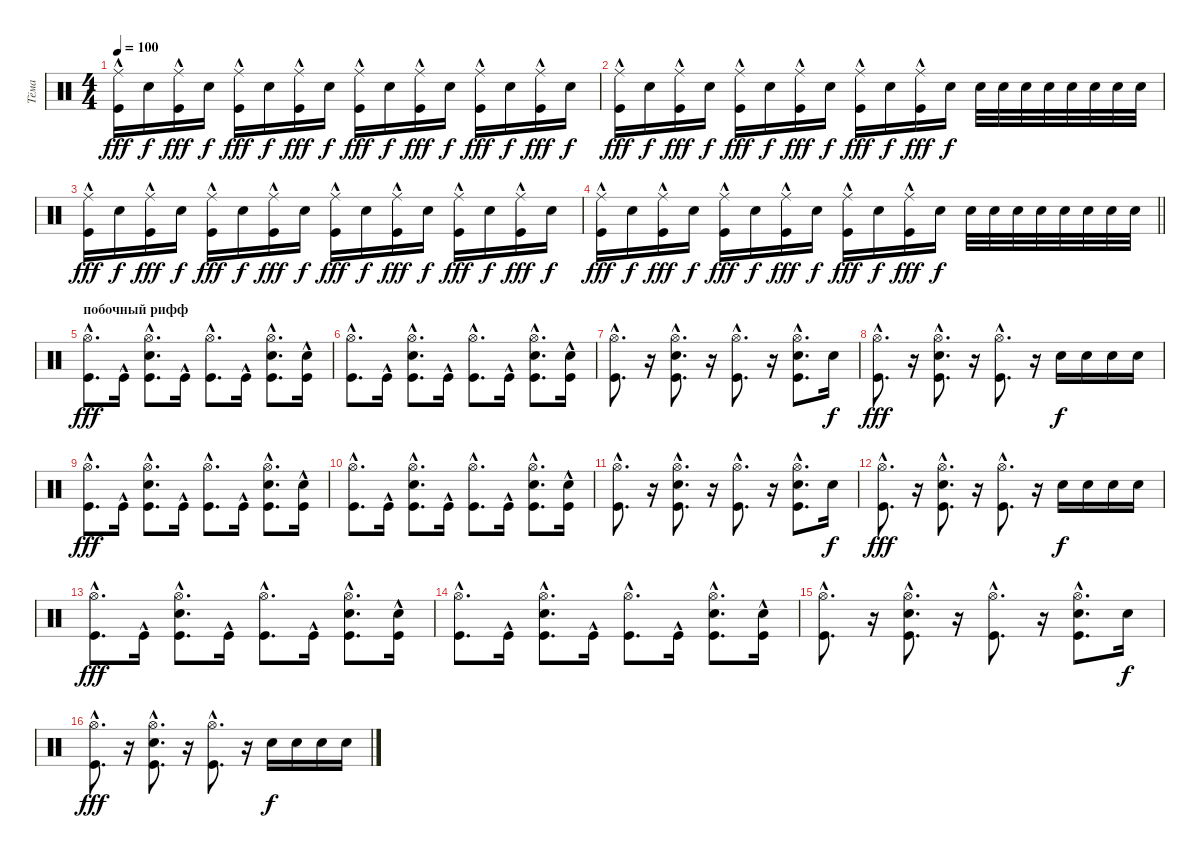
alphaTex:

\track ("Тёма" "Тёма") {instrument percussion}
\staff {score}
\articulation defaults
\ts (4 4)
\tempo 100
\clef neutral
\ks c
("Ride (middle)" "Kick (hit)"{hac}).16{dy fff} "Snare (hit) 2".16{dy f} ("Ride (middle)" "Kick (hit)"{hac}).16{dy fff} "Snare (hit) 2".16{dy f} ("Ride (middle)" "Kick (hit)"{hac}).16{dy fff} "Snare (hit) 2".16{dy f} ("Ride (middle)" "Kick (hit)"{hac}).16{dy fff} "Snare (hit) 2".16{dy f} ("Ride (middle)" "Kick (hit)"{hac}).16{dy fff} "Snare (hit) 2".16{dy f} ("Ride (middle)" "Kick (hit)"{hac}).16{dy fff} "Snare (hit) 2".16{dy f} ("Ride (middle)" "Kick (hit)"{hac}).16{dy fff} "Snare (hit) 2".16{dy f} ("Ride (middle)" "Kick (hit)"{hac}).16{dy fff} "Snare (hit) 2".16{dy f} |
("Ride (middle)" "Kick (hit)"{hac}).16{dy fff} "Snare (hit) 2".16{dy f} ("Ride (middle)" "Kick (hit)"{hac}).16{dy fff} "Snare (hit) 2".16{dy f} ("Ride (middle)" "Kick (hit)"{hac}).16{dy fff} "Snare (hit) 2".16{dy f} ("Ride (middle)" "Kick (hit)"{hac}).16{dy fff} "Snare (hit) 2".16{dy f} ("Ride (middle)" "Kick (hit)"{hac}).16{dy fff} "Snare (hit) 2".16{dy f} ("Ride (middle)" "Kick (hit)"{hac}).16{dy fff} "Snare (hit) 2".16{dy f} "Snare (hit) 2".32 "Snare (hit) 2".32 "Snare (hit) 2".32 "Snare (hit) 2".32 "Snare (hit) 2".32 "Snare (hit) 2".32 "Snare (hit) 2".32 "Snare (hit) 2".32 |
("Ride (middle)" "Kick (hit)"{hac}).16{dy fff} "Snare (hit) 2".16{dy f} ("Ride (middle)" "Kick (hit)"{hac}).16{dy fff} "Snare (hit) 2".16{dy f} ("Ride (middle)" "Kick (hit)"{hac}).16{dy fff} "Snare (hit) 2".16{dy f} ("Ride (middle)" "Kick (hit)"{hac}).16{dy fff} "Snare (hit) 2".16{dy f} ("Ride (middle)" "Kick (hit)"{hac}).16{dy fff} "Snare (hit) 2".16{dy f} ("Ride (middle)" "Kick (hit)"{hac}).16{dy fff} "Snare (hit) 2".16{dy f} ("Ride (middle)" "Kick (hit)"{hac}).16{dy fff} "Snare (hit) 2".16{dy f} ("Ride (middle)" "Kick (hit)"{hac}).16{dy fff} "Snare (hit) 2".16{dy f} |
\barLineRight lightlight
("Ride (middle)" "Kick (hit)"{hac}).16{dy fff} "Snare (hit) 2".16{dy f} ("Ride (middle)" "Kick (hit)"{hac}).16{dy fff} "Snare (hit) 2".16{dy f} ("Ride (middle)" "Kick (hit)"{hac}).16{dy fff} "Snare (hit) 2".16{dy f} ("Ride (middle)" "Kick (hit)"{hac}).16{dy fff} "Snare (hit) 2".16{dy f} ("Ride (middle)" "Kick (hit)"{hac}).16{dy fff} "Snare (hit) 2".16{dy f} ("Ride (middle)" "Kick (hit)"{hac}).16{dy fff} "Snare (hit) 2".16{dy f} "Snare (hit) 2".32 "Snare (hit) 2".32 "Snare (hit) 2".32 "Snare (hit) 2".32 "Snare (hit) 2".32 "Snare (hit) 2".32 "Snare (hit) 2".32 "Snare (hit) 2".32 |
\section ("" "побочный рифф")
("Hi-Hat (open)"{hac} "Kick (hit)"{hac}).8{d dy fff} "Kick (hit)"{hac}.16 ("Hi-Hat (open)"{hac} "Snare (hit) 2"{hac} "Kick (hit)"{hac}).8{d} "Kick (hit)"{hac}.16 ("Hi-Hat (open)"{hac} "Kick (hit)"{hac}).8{d} "Kick (hit)"{hac}.16 ("Hi-Hat (open)"{hac} "Snare (hit) 2"{hac} "Kick (hit)"{hac}).8{d} ("Snare (hit) 2" "Kick (hit)"{hac}).16 |
("Hi-Hat (open)"{hac} "Kick (hit)"{hac}).8{d} "Kick (hit)"{hac}.16 ("Hi-Hat (open)"{hac} "Snare (hit) 2"{hac} "Kick (hit)"{hac}).8{d} "Kick (hit)"{hac}.16 ("Hi-Hat (open)"{hac} "Kick (hit)"{hac}).8{d} "Kick (hit)"{hac}.16 ("Hi-Hat (open)"{hac} "Snare (hit) 2"{hac} "Kick (hit)"{hac}).8{d} ("Snare (hit) 2" "Kick (hit)"{hac}).16 |
("Hi-Hat (open)"{hac} "Kick (hit)"{hac}).8{d} r.16 ("Hi-Hat (open)"{hac} "Snare (hit) 2"{hac} "Kick (hit)"{hac}).8{d} r.16 ("Hi-Hat (open)"{hac} "Kick (hit)"{hac}).8{d} r.16 ("Hi-Hat (open)"{hac} "Snare (hit) 2"{hac} "Kick (hit)"{hac}).8{d} "Snare (hit) 2".16{dy f} |
("Hi-Hat (open)"{hac} "Kick (hit)"{hac}).8{d dy fff} r.16 ("Hi-Hat (open)"{hac} "Snare (hit) 2"{hac} "Kick (hit)"{hac}).8{d} r.16 ("Hi-Hat (open)"{hac} "Kick (hit)"{hac}).8{d} r.16 "Snare (hit) 2".16{dy f} "Snare (hit) 2".16 "Snare (hit) 2".16 "Snare (hit) 2".16 |
("Hi-Hat (open)"{hac} "Kick (hit)"{hac}).8{d dy fff} "Kick (hit)"{hac}.16 ("Hi-Hat (open)"{hac} "Snare (hit) 2"{hac} "Kick (hit)"{hac}).8{d} "Kick (hit)"{hac}.16 ("Hi-Hat (open)"{hac} "Kick (hit)"{hac}).8{d} "Kick (hit)"{hac}.16 ("Hi-Hat (open)"{hac} "Snare (hit) 2"{hac} "Kick (hit)"{hac}).8{d} ("Snare (hit) 2" "Kick (hit)"{hac}).16 |
("Hi-Hat (open)"{hac} "Kick (hit)"{hac}).8{d} "Kick (hit)"{hac}.16 ("Hi-Hat (open)"{hac} "Snare (hit) 2"{hac} "Kick (hit)"{hac}).8{d} "Kick (hit)"{hac}.16 ("Hi-Hat (open)"{hac} "Kick (hit)"{hac}).8{d} "Kick (hit)"{hac}.16 ("Hi-Hat (open)"{hac} "Snare (hit) 2"{hac} "Kick (hit)"{hac}).8{d} ("Snare (hit) 2" "Kick (hit)"{hac}).16 |
("Hi-Hat (open)"{hac} "Kick (hit)"{hac}).8{d} r.16 ("Hi-Hat (open)"{hac} "Snare (hit) 2"{hac} "Kick (hit)"{hac}).8{d} r.16 ("Hi-Hat (open)"{hac} "Kick (hit)"{hac}).8{d} r.16 ("Hi-Hat (open)"{hac} "Snare (hit) 2"{hac} "Kick (hit)"{hac}).8{d} "Snare (hit) 2".16{dy f} |
("Hi-Hat (open)"{hac} "Kick (hit)"{hac}).8{d dy fff} r.16 ("Hi-Hat (open)"{hac} "Snare (hit) 2"{hac} "Kick (hit)"{hac}).8{d} r.16 ("Hi-Hat (open)"{hac} "Kick (hit)"{hac}).8{d} r.16 "Snare (hit) 2".16{dy f} "Snare (hit) 2".16 "Snare (hit) 2".16 "Snare (hit) 2".16 |
("Hi-Hat (open)"{hac} "Kick (hit)"{hac}).8{d dy fff} "Kick (hit)"{hac}.16 ("Hi-Hat (open)"{hac} "Snare (hit) 2"{hac} "Kick (hit)"{hac}).8{d} "Kick (hit)"{hac}.16 ("Hi-Hat (open)"{hac} "Kick (hit)"{hac}).8{d} "Kick (hit)"{hac}.16 ("Hi-Hat (open)"{hac} "Snare (hit) 2"{hac} "Kick (hit)"{hac}).8{d} ("Snare (hit) 2" "Kick (hit)"{hac}).16 |
("Hi-Hat (open)"{hac} "Kick (hit)"{hac}).8{d} "Kick (hit)"{hac}.16 ("Hi-Hat (open)"{hac} "Snare (hit) 2"{hac} "Kick (hit)"{hac}).8{d} "Kick (hit)"{hac}.16 ("Hi-Hat (open)"{hac} "Kick (hit)"{hac}).8{d} "Kick (hit)"{hac}.16 ("Hi-Hat (open)"{hac} "Snare (hit) 2"{hac} "Kick (hit)"{hac}).8{d} ("Snare (hit) 2" "Kick (hit)"{hac}).16 |
("Hi-Hat (open)"{hac} "Kick (hit)"{hac}).8{d} r.16 ("Hi-Hat (open)"{hac} "Snare (hit) 2"{hac} "Kick (hit)"{hac}).8{d} r.16 ("Hi-Hat (open)"{hac} "Kick (hit)"{hac}).8{d} r.16 ("Hi-Hat (open)"{hac} "Snare (hit) 2"{hac} "Kick (hit)"{hac}).8{d} "Snare (hit) 2".16{dy f} |
("Hi-Hat (open)"{hac} "Kick (hit)"{hac}).8{d dy fff} r.16 ("Hi-Hat (open)"{hac} "Snare (hit) 2"{hac} "Kick (hit)"{hac}).8{d} r.16 ("Hi-Hat (open)"{hac} "Kick (hit)"{hac}).8{d} r.16 "Snare (hit) 2".16{dy f} "Snare (hit) 2".16 "Snare (hit) 2".16 "Snare (hit) 2".16
